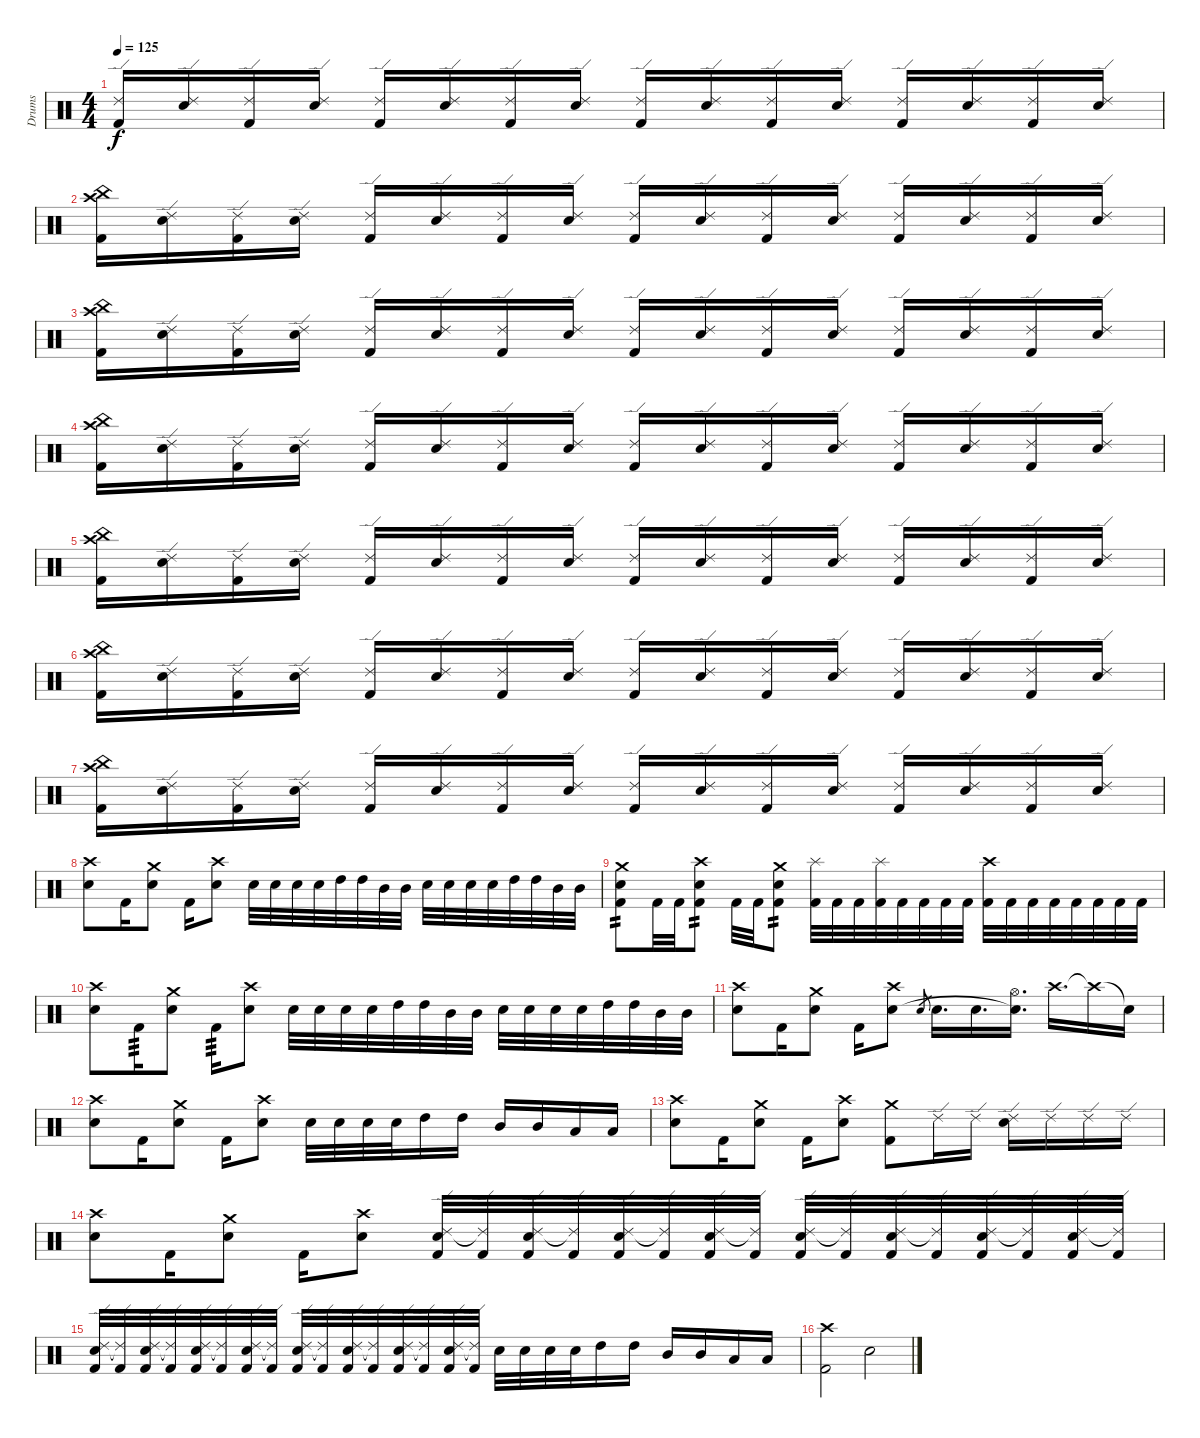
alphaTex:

\track ("Drums" "Drums") {instrument percussion}
\staff {score}
\articulation defaults
\ts (4 4)
\tempo 125
\clef neutral
\ks c
("Ride (edge) 2" "Kick (hit) 2").16{dy f} ("Ride (edge) 2" "Electric Snare (hit)").16 ("Ride (edge) 2" "Kick (hit) 2").16 ("Ride (edge) 2" "Electric Snare (hit)").16 ("Ride (edge) 2" "Kick (hit) 2").16 ("Ride (edge) 2" "Electric Snare (hit)").16 ("Ride (edge) 2" "Kick (hit) 2").16 ("Ride (edge) 2" "Electric Snare (hit)").16 ("Ride (edge) 2" "Kick (hit) 2").16 ("Ride (edge) 2" "Electric Snare (hit)").16 ("Ride (edge) 2" "Kick (hit) 2").16 ("Ride (edge) 2" "Electric Snare (hit)").16 ("Ride (edge) 2" "Kick (hit) 2").16 ("Ride (edge) 2" "Electric Snare (hit)").16 ("Ride (edge) 2" "Kick (hit) 2").16 ("Ride (edge) 2" "Electric Snare (hit)").16 |
("Crash high (hit)" "China (hit)" "Kick (hit) 2").16 ("Ride (edge) 2" "Electric Snare (hit)").16 ("Ride (edge) 2" "Kick (hit) 2").16 ("Ride (edge) 2" "Electric Snare (hit)").16 ("Ride (edge) 2" "Kick (hit) 2").16 ("Ride (edge) 2" "Electric Snare (hit)").16 ("Ride (edge) 2" "Kick (hit) 2").16 ("Ride (edge) 2" "Electric Snare (hit)").16 ("Ride (edge) 2" "Kick (hit) 2").16 ("Ride (edge) 2" "Electric Snare (hit)").16 ("Ride (edge) 2" "Kick (hit) 2").16 ("Ride (edge) 2" "Electric Snare (hit)").16 ("Ride (edge) 2" "Kick (hit) 2").16 ("Ride (edge) 2" "Electric Snare (hit)").16 ("Ride (edge) 2" "Kick (hit) 2").16 ("Ride (edge) 2" "Electric Snare (hit)").16 |
("Crash high (hit)" "China (hit)" "Kick (hit) 2").16 ("Ride (edge) 2" "Electric Snare (hit)").16 ("Ride (edge) 2" "Kick (hit) 2").16 ("Ride (edge) 2" "Electric Snare (hit)").16 ("Ride (edge) 2" "Kick (hit) 2").16 ("Ride (edge) 2" "Electric Snare (hit)").16 ("Ride (edge) 2" "Kick (hit) 2").16 ("Ride (edge) 2" "Electric Snare (hit)").16 ("Ride (edge) 2" "Kick (hit) 2").16 ("Ride (edge) 2" "Electric Snare (hit)").16 ("Ride (edge) 2" "Kick (hit) 2").16 ("Ride (edge) 2" "Electric Snare (hit)").16 ("Ride (edge) 2" "Kick (hit) 2").16 ("Ride (edge) 2" "Electric Snare (hit)").16 ("Ride (edge) 2" "Kick (hit) 2").16 ("Ride (edge) 2" "Electric Snare (hit)").16 |
("Crash high (hit)" "China (hit)" "Kick (hit) 2").16 ("Ride (edge) 2" "Electric Snare (hit)").16 ("Ride (edge) 2" "Kick (hit) 2").16 ("Ride (edge) 2" "Electric Snare (hit)").16 ("Ride (edge) 2" "Kick (hit) 2").16 ("Ride (edge) 2" "Electric Snare (hit)").16 ("Ride (edge) 2" "Kick (hit) 2").16 ("Ride (edge) 2" "Electric Snare (hit)").16 ("Ride (edge) 2" "Kick (hit) 2").16 ("Ride (edge) 2" "Electric Snare (hit)").16 ("Ride (edge) 2" "Kick (hit) 2").16 ("Ride (edge) 2" "Electric Snare (hit)").16 ("Ride (edge) 2" "Kick (hit) 2").16 ("Ride (edge) 2" "Electric Snare (hit)").16 ("Ride (edge) 2" "Kick (hit) 2").16 ("Ride (edge) 2" "Electric Snare (hit)").16 |
("Crash high (hit)" "China (hit)" "Kick (hit) 2").16 ("Ride (edge) 2" "Electric Snare (hit)").16 ("Ride (edge) 2" "Kick (hit) 2").16 ("Ride (edge) 2" "Electric Snare (hit)").16 ("Ride (edge) 2" "Kick (hit) 2").16 ("Ride (edge) 2" "Electric Snare (hit)").16 ("Ride (edge) 2" "Kick (hit) 2").16 ("Ride (edge) 2" "Electric Snare (hit)").16 ("Ride (edge) 2" "Kick (hit) 2").16 ("Ride (edge) 2" "Electric Snare (hit)").16 ("Ride (edge) 2" "Kick (hit) 2").16 ("Ride (edge) 2" "Electric Snare (hit)").16 ("Ride (edge) 2" "Kick (hit) 2").16 ("Ride (edge) 2" "Electric Snare (hit)").16 ("Ride (edge) 2" "Kick (hit) 2").16 ("Ride (edge) 2" "Electric Snare (hit)").16 |
("Crash high (hit)" "China (hit)" "Kick (hit) 2").16 ("Ride (edge) 2" "Electric Snare (hit)").16 ("Ride (edge) 2" "Kick (hit) 2").16 ("Ride (edge) 2" "Electric Snare (hit)").16 ("Ride (edge) 2" "Kick (hit) 2").16 ("Ride (edge) 2" "Electric Snare (hit)").16 ("Ride (edge) 2" "Kick (hit) 2").16 ("Ride (edge) 2" "Electric Snare (hit)").16 ("Ride (edge) 2" "Kick (hit) 2").16 ("Ride (edge) 2" "Electric Snare (hit)").16 ("Ride (edge) 2" "Kick (hit) 2").16 ("Ride (edge) 2" "Electric Snare (hit)").16 ("Ride (edge) 2" "Kick (hit) 2").16 ("Ride (edge) 2" "Electric Snare (hit)").16 ("Ride (edge) 2" "Kick (hit) 2").16 ("Ride (edge) 2" "Electric Snare (hit)").16 |
("Crash high (hit)" "China (hit)" "Kick (hit) 2").16 ("Ride (edge) 2" "Electric Snare (hit)").16 ("Ride (edge) 2" "Kick (hit) 2").16 ("Ride (edge) 2" "Electric Snare (hit)").16 ("Ride (edge) 2" "Kick (hit) 2").16 ("Ride (edge) 2" "Electric Snare (hit)").16 ("Ride (edge) 2" "Kick (hit) 2").16 ("Ride (edge) 2" "Electric Snare (hit)").16 ("Ride (edge) 2" "Kick (hit) 2").16 ("Ride (edge) 2" "Electric Snare (hit)").16 ("Ride (edge) 2" "Kick (hit) 2").16 ("Ride (edge) 2" "Electric Snare (hit)").16 ("Ride (edge) 2" "Kick (hit) 2").16 ("Ride (edge) 2" "Electric Snare (hit)").16 ("Ride (edge) 2" "Kick (hit) 2").16 ("Ride (edge) 2" "Electric Snare (hit)").16 |
("Crash high (hit)" "Electric Snare (hit)").8 "Kick (hit) 2".16 ("Crash medium (hit)" "Electric Snare (hit)").8 "Kick (hit) 2".16 ("Crash high (hit)" "Electric Snare (hit)").8 "Electric Snare (hit)".32 "Electric Snare (hit)".32 "Electric Snare (hit)".32 "Electric Snare (hit)".32 "High Tom (hit)".32 "High Tom (hit)".32 "Mid Tom (hit)".32 "Mid Tom (hit)".32 "Electric Snare (hit)".32 "Electric Snare (hit)".32 "Electric Snare (hit)".32 "Electric Snare (hit)".32 "High Tom (hit)".32 "High Tom (hit)".32 "Mid Tom (hit)".32 "Mid Tom (hit)".32 |
("Crash medium (hit)" "Electric Snare (hit)" "Kick (hit) 2").8{tp 2} "Kick (hit) 2".32 "Kick (hit) 2".32 ("Crash high (hit)" "Electric Snare (hit)" "Kick (hit) 2").8{tp 2} "Kick (hit) 2".32 "Kick (hit) 2".32 ("Crash medium (hit)" "Electric Snare (hit)" "Kick (hit) 2").8{tp 2} ("Splash (hit)" "Kick (hit) 2").32 "Kick (hit) 2".32 "Kick (hit) 2".32 ("Splash (hit)" "Kick (hit) 2").32 "Kick (hit) 2".32 "Kick (hit) 2".32 "Kick (hit) 2".32 "Kick (hit) 2".32 ("Crash high (hit)" "Kick (hit) 2").32 "Kick (hit) 2".32 "Kick (hit) 2".32 "Kick (hit) 2".32 "Kick (hit) 2".32 "Kick (hit) 2".32 "Kick (hit) 2".32 "Kick (hit) 2".32 |
("Crash high (hit)" "Electric Snare (hit)").8 "Kick (hit) 2".16{tp 3} ("Crash medium (hit)" "Electric Snare (hit)").8 "Kick (hit) 2".16{tp 3} ("Crash high (hit)" "Electric Snare (hit)").8 "Electric Snare (hit)".32 "Electric Snare (hit)".32 "Electric Snare (hit)".32 "Electric Snare (hit)".32 "High Tom (hit)".32 "High Tom (hit)".32 "Mid Tom (hit)".32 "Mid Tom (hit)".32 "Electric Snare (hit)".32 "Electric Snare (hit)".32 "Electric Snare (hit)".32 "Electric Snare (hit)".32 "High Tom (hit)".32 "High Tom (hit)".32 "Mid Tom (hit)".32 "Mid Tom (hit)".32 |
("Crash high (hit)" "Electric Snare (hit)").8 "Kick (hit) 2".16 ("Crash medium (hit)" "Electric Snare (hit)").8 "Kick (hit) 2".16 ("Crash high (hit)" "Electric Snare (hit)").8 "Electric Snare (hit)".8{gr} "Electric Snare (hit)".16{d} "Electric Snare (hit)".16{d} ("Hi-Hat (open)" "Electric Snare (hit)"{t}).16{d} "Crash high (hit)".16{d} "Crash high (hit)"{t}.16 "Snare (hit)"{t}.16 |
("Crash high (hit)" "Electric Snare (hit)").8 "Kick (hit) 2".16 ("Crash medium (hit)" "Electric Snare (hit)").8 "Kick (hit) 2".16 ("Crash high (hit)" "Electric Snare (hit)").8 "Electric Snare (hit)".32 "Electric Snare (hit)".32 "Electric Snare (hit)".32 "Electric Snare (hit)".32 "High Tom (hit)".16 "High Tom (hit)".16 "Mid Tom (hit)".16 "Mid Tom (hit)".16 "Low Tom (hit)".16 "Low Tom (hit)".16 |
("Crash high (hit)" "Electric Snare (hit)").8 "Kick (hit) 2".16 ("Crash medium (hit)" "Electric Snare (hit)").8 "Kick (hit) 2".16 ("Crash high (hit)" "Electric Snare (hit)").8 ("Crash medium (hit)" "Kick (hit) 2").8 "Ride (edge) 2".16 "Ride (edge) 2".16 ("Ride (edge) 2" "Electric Snare (hit)").16 "Ride (edge) 2".16 "Ride (edge) 2".16 "Ride (edge) 2".16 |
("Crash high (hit)" "Electric Snare (hit)").8 "Kick (hit) 2".16 ("Crash medium (hit)" "Electric Snare (hit)").8 "Kick (hit) 2".16 ("Crash high (hit)" "Electric Snare (hit)").8 ("Ride (edge) 2" "Electric Snare (hit)" "Kick (hit) 2").32 ("Ride (edge) 2"{t} "Kick (hit) 2").32 ("Ride (edge) 2" "Electric Snare (hit)" "Kick (hit) 2").32 ("Ride (edge) 2"{t} "Kick (hit) 2").32 ("Ride (edge) 2" "Electric Snare (hit)" "Kick (hit) 2").32 ("Ride (edge) 2"{t} "Kick (hit) 2").32 ("Ride (edge) 2" "Electric Snare (hit)" "Kick (hit) 2").32 ("Ride (edge) 2"{t} "Kick (hit) 2").32 ("Ride (edge) 2" "Electric Snare (hit)" "Kick (hit) 2").32 ("Ride (edge) 2"{t} "Kick (hit) 2").32 ("Ride (edge) 2" "Electric Snare (hit)" "Kick (hit) 2").32 ("Ride (edge) 2"{t} "Kick (hit) 2").32 ("Ride (edge) 2" "Electric Snare (hit)" "Kick (hit) 2").32 ("Ride (edge) 2"{t} "Kick (hit) 2").32 ("Ride (edge) 2" "Electric Snare (hit)" "Kick (hit) 2").32 ("Ride (edge) 2"{t} "Kick (hit) 2").32 |
("Ride (edge) 2" "Electric Snare (hit)" "Kick (hit) 2").32 ("Ride (edge) 2"{t} "Kick (hit) 2").32 ("Ride (edge) 2" "Electric Snare (hit)" "Kick (hit) 2").32 ("Ride (edge) 2"{t} "Kick (hit) 2").32 ("Ride (edge) 2" "Electric Snare (hit)" "Kick (hit) 2").32 ("Ride (edge) 2"{t} "Kick (hit) 2").32 ("Ride (edge) 2" "Electric Snare (hit)" "Kick (hit) 2").32 ("Ride (edge) 2"{t} "Kick (hit) 2").32 ("Ride (edge) 2" "Electric Snare (hit)" "Kick (hit) 2").32 ("Ride (edge) 2"{t} "Kick (hit) 2").32 ("Ride (edge) 2" "Electric Snare (hit)" "Kick (hit) 2").32 ("Ride (edge) 2"{t} "Kick (hit) 2").32 ("Ride (edge) 2" "Electric Snare (hit)" "Kick (hit) 2").32 ("Ride (edge) 2"{t} "Kick (hit) 2").32 ("Ride (edge) 2" "Electric Snare (hit)" "Kick (hit) 2").32 ("Ride (edge) 2"{t} "Kick (hit) 2").32 "Electric Snare (hit)".32 "Electric Snare (hit)".32 "Electric Snare (hit)".32 "Electric Snare (hit)".32 "High Tom (hit)".16 "High Tom (hit)".16 "Mid Tom (hit)".16 "Mid Tom (hit)".16 "Low Tom (hit)".16 "Low Tom (hit)".16 |
("Crash high (hit)" "Kick (hit) 2").2 "Electric Snare (hit)".2
